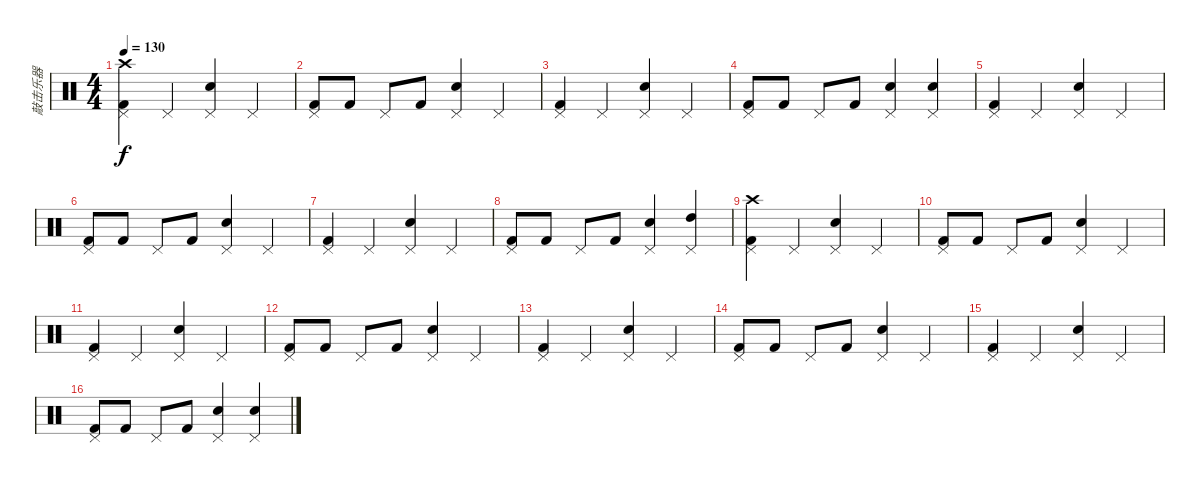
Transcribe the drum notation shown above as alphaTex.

\track ("敲击乐器" "敲击乐器") {instrument percussion}
\staff {score}
\articulation defaults
\ts (4 4)
\tempo 130
\clef neutral
\ks c
("Crash high (hit)" "Kick (hit) 2" "Pedal Hi-Hat (hit)").4{dy f} "Pedal Hi-Hat (hit)".4 ("Pedal Hi-Hat (hit)" "Electric Snare (hit)").4 "Pedal Hi-Hat (hit)".4 |
("Pedal Hi-Hat (hit)" "Kick (hit) 2").8 "Kick (hit) 2".8 "Pedal Hi-Hat (hit)".8 "Kick (hit) 2".8 ("Pedal Hi-Hat (hit)" "Electric Snare (hit)").4 "Pedal Hi-Hat (hit)".4 |
("Kick (hit) 2" "Pedal Hi-Hat (hit)").4 "Pedal Hi-Hat (hit)".4 ("Pedal Hi-Hat (hit)" "Electric Snare (hit)").4 "Pedal Hi-Hat (hit)".4 |
("Pedal Hi-Hat (hit)" "Kick (hit) 2").8 "Kick (hit) 2".8 "Pedal Hi-Hat (hit)".8 "Kick (hit) 2".8 ("Pedal Hi-Hat (hit)" "Electric Snare (hit)").4 ("Pedal Hi-Hat (hit)" "Electric Snare (hit)").4 |
("Kick (hit) 2" "Pedal Hi-Hat (hit)").4 "Pedal Hi-Hat (hit)".4 ("Pedal Hi-Hat (hit)" "Electric Snare (hit)").4 "Pedal Hi-Hat (hit)".4 |
("Pedal Hi-Hat (hit)" "Kick (hit) 2").8 "Kick (hit) 2".8 "Pedal Hi-Hat (hit)".8 "Kick (hit) 2".8 ("Pedal Hi-Hat (hit)" "Electric Snare (hit)").4 "Pedal Hi-Hat (hit)".4 |
("Kick (hit) 2" "Pedal Hi-Hat (hit)").4 "Pedal Hi-Hat (hit)".4 ("Pedal Hi-Hat (hit)" "Electric Snare (hit)").4 "Pedal Hi-Hat (hit)".4 |
("Pedal Hi-Hat (hit)" "Kick (hit) 2").8 "Kick (hit) 2".8 "Pedal Hi-Hat (hit)".8 "Kick (hit) 2".8 ("Pedal Hi-Hat (hit)" "Electric Snare (hit)").4 ("Pedal Hi-Hat (hit)" "High Tom (hit)").4 |
("Crash high (hit)" "Kick (hit) 2" "Pedal Hi-Hat (hit)").4 "Pedal Hi-Hat (hit)".4 ("Pedal Hi-Hat (hit)" "Electric Snare (hit)").4 "Pedal Hi-Hat (hit)".4 |
("Pedal Hi-Hat (hit)" "Kick (hit) 2").8 "Kick (hit) 2".8 "Pedal Hi-Hat (hit)".8 "Kick (hit) 2".8 ("Pedal Hi-Hat (hit)" "Electric Snare (hit)").4 "Pedal Hi-Hat (hit)".4 |
("Kick (hit) 2" "Pedal Hi-Hat (hit)").4 "Pedal Hi-Hat (hit)".4 ("Pedal Hi-Hat (hit)" "Electric Snare (hit)").4 "Pedal Hi-Hat (hit)".4 |
("Pedal Hi-Hat (hit)" "Kick (hit) 2").8 "Kick (hit) 2".8 "Pedal Hi-Hat (hit)".8 "Kick (hit) 2".8 ("Pedal Hi-Hat (hit)" "Electric Snare (hit)").4 "Pedal Hi-Hat (hit)".4 |
("Kick (hit) 2" "Pedal Hi-Hat (hit)").4 "Pedal Hi-Hat (hit)".4 ("Pedal Hi-Hat (hit)" "Electric Snare (hit)").4 "Pedal Hi-Hat (hit)".4 |
("Pedal Hi-Hat (hit)" "Kick (hit) 2").8 "Kick (hit) 2".8 "Pedal Hi-Hat (hit)".8 "Kick (hit) 2".8 ("Pedal Hi-Hat (hit)" "Electric Snare (hit)").4 "Pedal Hi-Hat (hit)".4 |
("Kick (hit) 2" "Pedal Hi-Hat (hit)").4 "Pedal Hi-Hat (hit)".4 ("Pedal Hi-Hat (hit)" "Electric Snare (hit)").4 "Pedal Hi-Hat (hit)".4 |
("Pedal Hi-Hat (hit)" "Kick (hit) 2").8 "Kick (hit) 2".8 "Pedal Hi-Hat (hit)".8 "Kick (hit) 2".8 ("Pedal Hi-Hat (hit)" "Electric Snare (hit)").4 ("Pedal Hi-Hat (hit)" "Electric Snare (hit)").4
